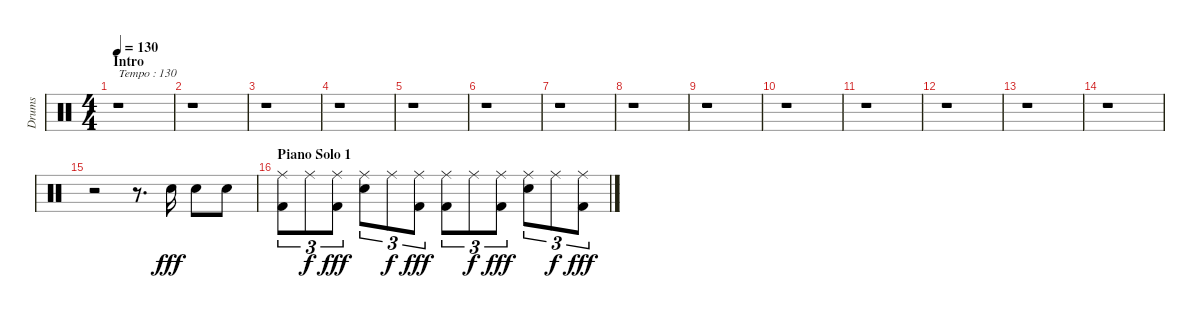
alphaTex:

\track ("Drums" "Drums") {instrument percussion}
\staff {score}
\articulation defaults
\ts (4 4)
\section ("" "Intro")
\tempo 130
\clef neutral
\ks c
r.1{txt "Tempo : 130" dy fff} |
r.1 |
r.1 |
r.1 |
r.1 |
r.1 |
r.1 |
r.1 |
r.1 |
r.1 |
r.1 |
r.1 |
r.1 |
r.1 |
r.2 r.8{d} "Snare (hit) 2".16 "Snare (hit) 2".8 "Snare (hit) 2".8 |
\section ("" "Piano Solo 1")
("Ride (middle)" "Kick (hit) 2").8{tu (3 2)} "Ride (middle)".8{tu (3 2) dy f} ("Ride (middle)" "Kick (hit) 2").8{tu (3 2) dy fff} ("Ride (middle)" "Snare (hit) 2").8{tu (3 2)} "Ride (middle)".8{tu (3 2) dy f} ("Ride (middle)" "Kick (hit) 2").8{tu (3 2) dy fff} ("Ride (middle)" "Kick (hit) 2").8{tu (3 2)} "Ride (middle)".8{tu (3 2) dy f} ("Ride (middle)" "Kick (hit) 2").8{tu (3 2) dy fff} ("Ride (middle)" "Snare (hit) 2").8{tu (3 2)} "Ride (middle)".8{tu (3 2) dy f} ("Ride (middle)" "Kick (hit) 2").8{tu (3 2) dy fff}
